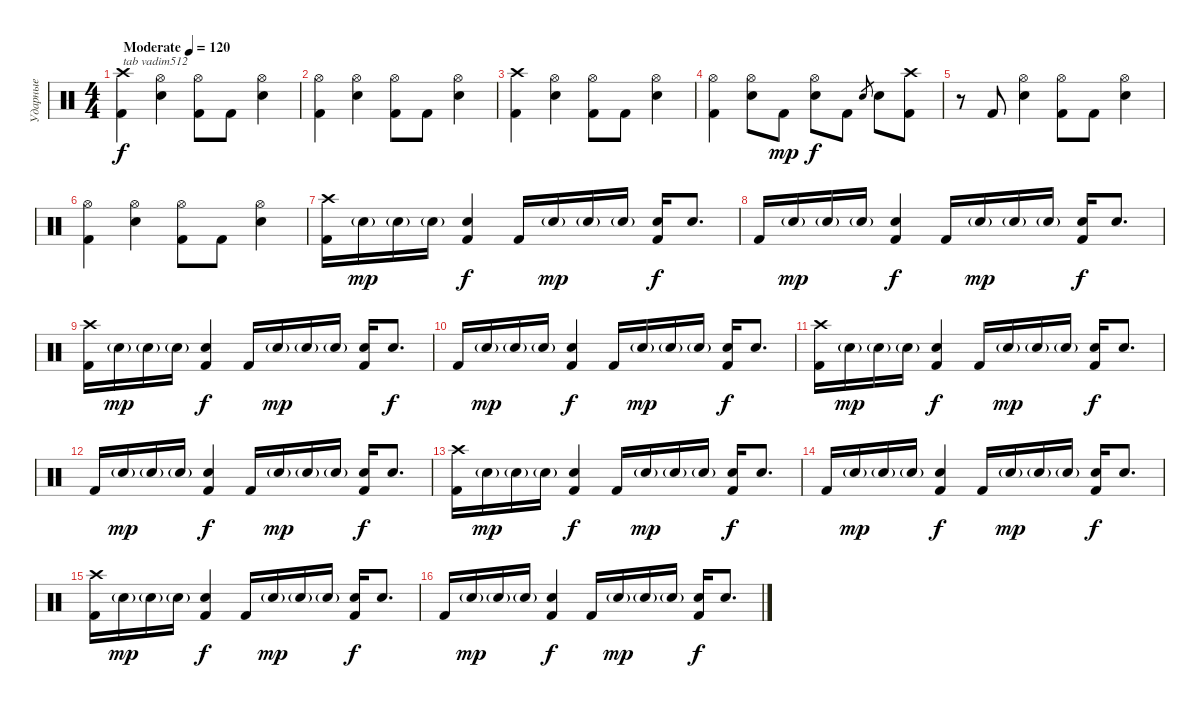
\track ("Ударные" "Ударные") {instrument percussion}
\staff {score}
\articulation defaults
\ts (4 4)
\tempo (120 "Moderate")
\clef neutral
\ks c
("Kick (hit) 2" "Crash high (hit)").4{txt "tab vadim512" dy f} ("Electric Snare (hit)" "Hi-Hat (open)").4 ("Kick (hit) 2" "Hi-Hat (open)").8 "Kick (hit) 2".8 ("Electric Snare (hit)" "Hi-Hat (open)").4 |
("Kick (hit) 2" "Hi-Hat (open)").4 ("Electric Snare (hit)" "Hi-Hat (open)").4 ("Kick (hit) 2" "Hi-Hat (open)").8 "Kick (hit) 2".8 ("Electric Snare (hit)" "Hi-Hat (open)").4 |
("Kick (hit) 2" "Crash high (hit)").4 ("Electric Snare (hit)" "Hi-Hat (open)").4 ("Kick (hit) 2" "Hi-Hat (open)").8 "Kick (hit) 2".8 ("Electric Snare (hit)" "Hi-Hat (open)").4 |
("Kick (hit) 2" "Hi-Hat (open)").4 ("Electric Snare (hit)" "Hi-Hat (open)").8 "Kick (hit) 2".8{dy mp} ("Electric Snare (hit)" "Hi-Hat (open)").8{dy f} "Kick (hit) 2".8 "Electric Snare (hit)".8{gr} "Electric Snare (hit)".8 ("Kick (hit) 2" "Crash high (hit)").8 |
r.8 "Kick (hit) 2".8 ("Electric Snare (hit)" "Hi-Hat (open)").4 ("Kick (hit) 2" "Hi-Hat (open)").8 "Kick (hit) 2".8 ("Electric Snare (hit)" "Hi-Hat (open)").4 |
("Kick (hit) 2" "Hi-Hat (open)").4 ("Electric Snare (hit)" "Hi-Hat (open)").4 ("Kick (hit) 2" "Hi-Hat (open)").8 "Kick (hit) 2".8 ("Electric Snare (hit)" "Hi-Hat (open)").4 |
("Kick (hit) 2" "Crash high (hit)").16 "Electric Snare (hit)"{g}.16{dy mp} "Electric Snare (hit)"{g}.16 "Electric Snare (hit)"{g}.16 ("Kick (hit) 2" "Electric Snare (hit)").4{dy f} "Kick (hit) 2".16 "Electric Snare (hit)"{g}.16{dy mp} "Electric Snare (hit)"{g}.16 "Electric Snare (hit)"{g}.16 ("Kick (hit) 2" "Electric Snare (hit)").16{dy f} "Electric Snare (hit)".8{d} |
"Kick (hit) 2".16 "Electric Snare (hit)"{g}.16{dy mp} "Electric Snare (hit)"{g}.16 "Electric Snare (hit)"{g}.16 ("Kick (hit) 2" "Electric Snare (hit)").4{dy f} "Kick (hit) 2".16 "Electric Snare (hit)"{g}.16{dy mp} "Electric Snare (hit)"{g}.16 "Electric Snare (hit)"{g}.16 ("Kick (hit) 2" "Electric Snare (hit)").16{dy f} "Electric Snare (hit)".8{d} |
("Kick (hit) 2" "Crash high (hit)").16 "Electric Snare (hit)"{g}.16{dy mp} "Electric Snare (hit)"{g}.16 "Electric Snare (hit)"{g}.16 ("Kick (hit) 2" "Electric Snare (hit)").4{dy f} "Kick (hit) 2".16 "Electric Snare (hit)"{g}.16{dy mp} "Electric Snare (hit)"{g}.16 "Electric Snare (hit)"{g}.16 ("Kick (hit) 2" "Electric Snare (hit)").16 "Electric Snare (hit)".8{d dy f} |
"Kick (hit) 2".16 "Electric Snare (hit)"{g}.16{dy mp} "Electric Snare (hit)"{g}.16 "Electric Snare (hit)"{g}.16 ("Kick (hit) 2" "Electric Snare (hit)").4{dy f} "Kick (hit) 2".16 "Electric Snare (hit)"{g}.16{dy mp} "Electric Snare (hit)"{g}.16 "Electric Snare (hit)"{g}.16 ("Kick (hit) 2" "Electric Snare (hit)").16{dy f} "Electric Snare (hit)".8{d} |
("Kick (hit) 2" "Crash high (hit)").16 "Electric Snare (hit)"{g}.16{dy mp} "Electric Snare (hit)"{g}.16 "Electric Snare (hit)"{g}.16 ("Kick (hit) 2" "Electric Snare (hit)").4{dy f} "Kick (hit) 2".16 "Electric Snare (hit)"{g}.16{dy mp} "Electric Snare (hit)"{g}.16 "Electric Snare (hit)"{g}.16 ("Kick (hit) 2" "Electric Snare (hit)").16{dy f} "Electric Snare (hit)".8{d} |
"Kick (hit) 2".16 "Electric Snare (hit)"{g}.16{dy mp} "Electric Snare (hit)"{g}.16 "Electric Snare (hit)"{g}.16 ("Kick (hit) 2" "Electric Snare (hit)").4{dy f} "Kick (hit) 2".16 "Electric Snare (hit)"{g}.16{dy mp} "Electric Snare (hit)"{g}.16 "Electric Snare (hit)"{g}.16 ("Kick (hit) 2" "Electric Snare (hit)").16{dy f} "Electric Snare (hit)".8{d} |
("Kick (hit) 2" "Crash high (hit)").16 "Electric Snare (hit)"{g}.16{dy mp} "Electric Snare (hit)"{g}.16 "Electric Snare (hit)"{g}.16 ("Kick (hit) 2" "Electric Snare (hit)").4{dy f} "Kick (hit) 2".16 "Electric Snare (hit)"{g}.16{dy mp} "Electric Snare (hit)"{g}.16 "Electric Snare (hit)"{g}.16 ("Kick (hit) 2" "Electric Snare (hit)").16{dy f} "Electric Snare (hit)".8{d} |
"Kick (hit) 2".16 "Electric Snare (hit)"{g}.16{dy mp} "Electric Snare (hit)"{g}.16 "Electric Snare (hit)"{g}.16 ("Kick (hit) 2" "Electric Snare (hit)").4{dy f} "Kick (hit) 2".16 "Electric Snare (hit)"{g}.16{dy mp} "Electric Snare (hit)"{g}.16 "Electric Snare (hit)"{g}.16 ("Kick (hit) 2" "Electric Snare (hit)").16{dy f} "Electric Snare (hit)".8{d} |
("Kick (hit) 2" "Crash high (hit)").16 "Electric Snare (hit)"{g}.16{dy mp} "Electric Snare (hit)"{g}.16 "Electric Snare (hit)"{g}.16 ("Kick (hit) 2" "Electric Snare (hit)").4{dy f} "Kick (hit) 2".16 "Electric Snare (hit)"{g}.16{dy mp} "Electric Snare (hit)"{g}.16 "Electric Snare (hit)"{g}.16 ("Kick (hit) 2" "Electric Snare (hit)").16{dy f} "Electric Snare (hit)".8{d} |
"Kick (hit) 2".16 "Electric Snare (hit)"{g}.16{dy mp} "Electric Snare (hit)"{g}.16 "Electric Snare (hit)"{g}.16 ("Kick (hit) 2" "Electric Snare (hit)").4{dy f} "Kick (hit) 2".16 "Electric Snare (hit)"{g}.16{dy mp} "Electric Snare (hit)"{g}.16 "Electric Snare (hit)"{g}.16 ("Kick (hit) 2" "Electric Snare (hit)").16{dy f} "Electric Snare (hit)".8{d}
